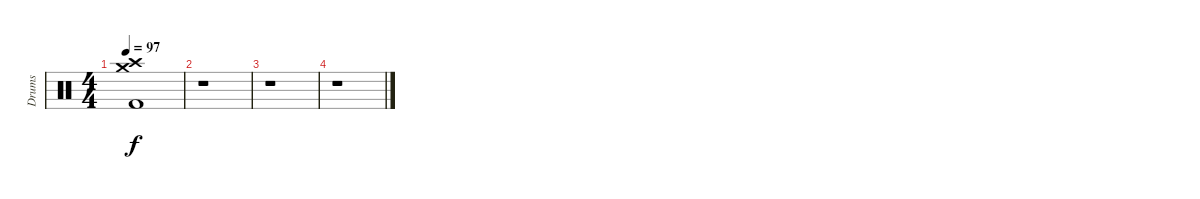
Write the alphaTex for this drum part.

\track ("Drums" "Drums") {instrument percussion}
\staff {score}
\articulation defaults
\ts (4 4)
\tempo 97
\clef neutral
\ks c
("Crash medium (hit)" "Crash high (hit)" "Kick (hit) 2").1{dy f} |
r.1 |
r.1 |
r.1
